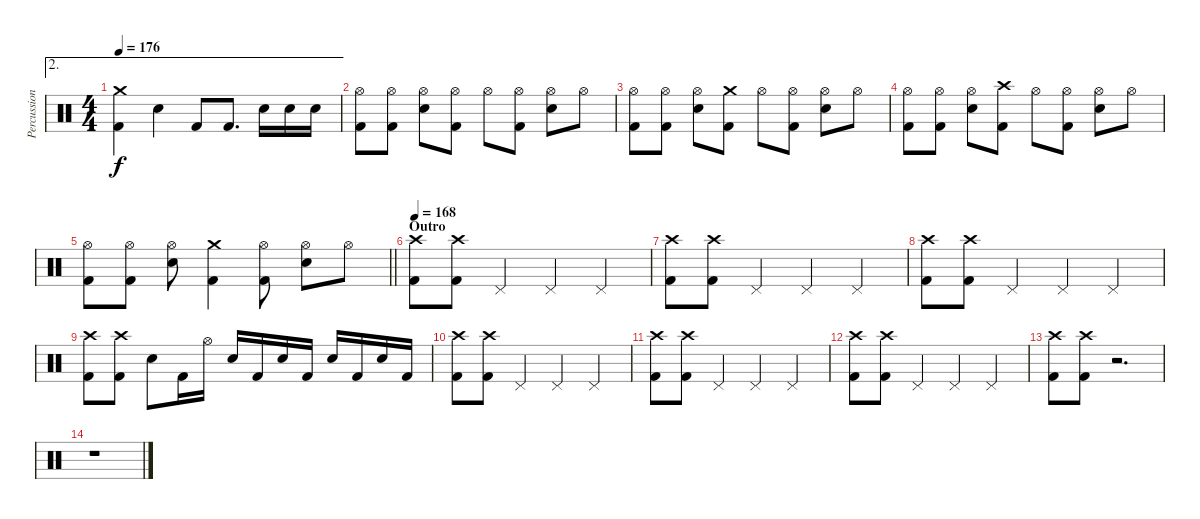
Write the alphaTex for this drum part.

\track ("Percussion" "Percussion") {instrument percussion}
\staff {score}
\articulation defaults
\ae 2
\ts (4 4)
\tempo 176
\clef neutral
\ks c
("Crash medium (hit)" "Kick (hit) 2").4{dy f} "Snare (hit) 2".4 "Kick (hit) 2".8 "Kick (hit) 2".8{d} "Snare (hit) 2".16 "Snare (hit) 2".16 "Snare (hit) 2".16 |
("Hi-Hat (open)" "Kick (hit) 2").8 ("Hi-Hat (open)" "Kick (hit) 2").8 ("Hi-Hat (open)" "Snare (hit) 2").8 ("Hi-Hat (open)" "Kick (hit) 2").8 "Hi-Hat (open)".8 ("Hi-Hat (open)" "Kick (hit) 2").8 ("Hi-Hat (open)" "Snare (hit) 2").8 "Hi-Hat (open)".8 |
("Hi-Hat (open)" "Kick (hit) 2").8 ("Hi-Hat (open)" "Kick (hit) 2").8 ("Hi-Hat (open)" "Snare (hit) 2").8 ("Crash medium (hit)" "Kick (hit) 2").8 "Hi-Hat (open)".8 ("Hi-Hat (open)" "Kick (hit) 2").8 ("Hi-Hat (open)" "Snare (hit) 2").8 "Hi-Hat (open)".8 |
("Hi-Hat (open)" "Kick (hit) 2").8 ("Hi-Hat (open)" "Kick (hit) 2").8 ("Hi-Hat (open)" "Snare (hit) 2").8 ("Crash high (hit)" "Kick (hit) 2").8 "Hi-Hat (open)".8 ("Hi-Hat (open)" "Kick (hit) 2").8 ("Hi-Hat (open)" "Snare (hit) 2").8 "Hi-Hat (open)".8 |
\barLineRight lightlight
("Hi-Hat (open)" "Kick (hit) 2").8 ("Hi-Hat (open)" "Kick (hit) 2").8 ("Hi-Hat (open)" "Snare (hit) 2").8 ("Crash medium (hit)" "Kick (hit) 2").4 ("Hi-Hat (open)" "Kick (hit) 2").8 ("Hi-Hat (open)" "Snare (hit) 2").8 "Hi-Hat (open)".8 |
\section ("" "Outro")
\tempo 168
("Crash high (hit)" "Kick (hit) 2").8 ("Crash high (hit)" "Kick (hit) 2").8 "Pedal Hi-Hat (hit)".4 "Pedal Hi-Hat (hit)".4 "Pedal Hi-Hat (hit)".4 |
("Crash high (hit)" "Kick (hit) 2").8 ("Crash high (hit)" "Kick (hit) 2").8 "Pedal Hi-Hat (hit)".4 "Pedal Hi-Hat (hit)".4 "Pedal Hi-Hat (hit)".4 |
("Crash high (hit)" "Kick (hit) 2").8 ("Crash high (hit)" "Kick (hit) 2").8 "Pedal Hi-Hat (hit)".4 "Pedal Hi-Hat (hit)".4 "Pedal Hi-Hat (hit)".4 |
("Crash high (hit)" "Kick (hit) 2").8 ("Crash high (hit)" "Kick (hit) 2").8 "Snare (hit) 2".8 "Kick (hit) 2".16 "Hi-Hat (open)".16 "Snare (hit) 2".16 "Kick (hit) 2".16 "Snare (hit) 2".16 "Kick (hit) 2".16 "Snare (hit) 2".16 "Kick (hit) 2".16 "Snare (hit) 2".16 "Kick (hit) 2".16 |
("Crash high (hit)" "Kick (hit) 2").8 ("Crash high (hit)" "Kick (hit) 2").8 "Pedal Hi-Hat (hit)".4 "Pedal Hi-Hat (hit)".4 "Pedal Hi-Hat (hit)".4 |
("Crash high (hit)" "Kick (hit) 2").8 ("Crash high (hit)" "Kick (hit) 2").8 "Pedal Hi-Hat (hit)".4 "Pedal Hi-Hat (hit)".4 "Pedal Hi-Hat (hit)".4 |
("Crash high (hit)" "Kick (hit) 2").8 ("Crash high (hit)" "Kick (hit) 2").8 "Pedal Hi-Hat (hit)".4 "Pedal Hi-Hat (hit)".4 "Pedal Hi-Hat (hit)".4 |
("Crash high (hit)" "Kick (hit) 2").8 ("Crash high (hit)" "Kick (hit) 2").8 r.2{d} |
r.1
